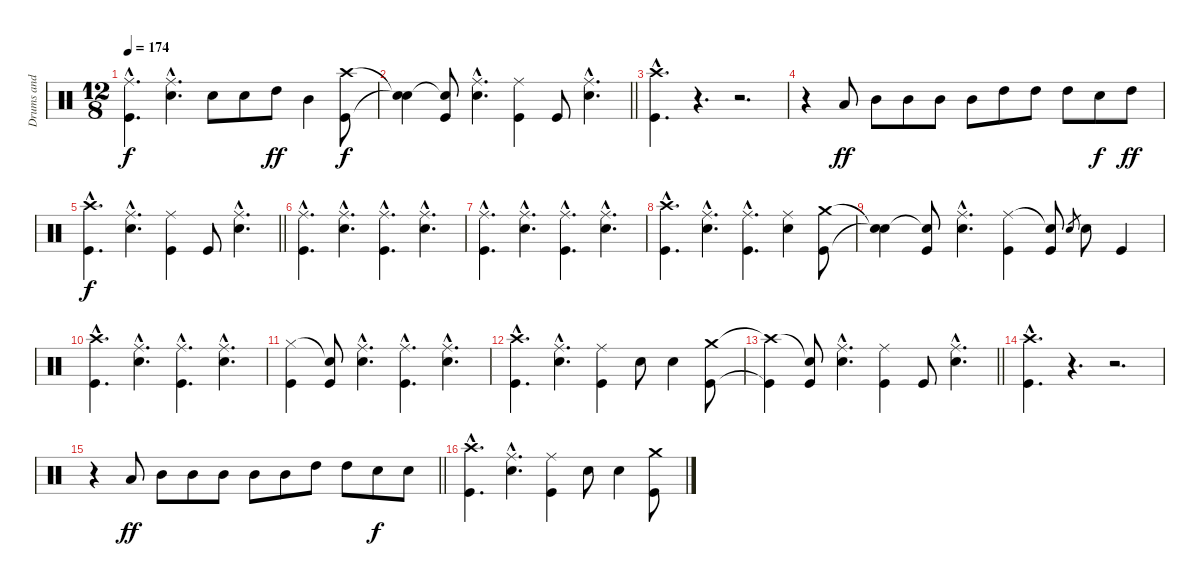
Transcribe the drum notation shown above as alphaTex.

\track ("Drums and percussion" "Drums and ") {instrument percussion}
\staff {score}
\articulation defaults
\ts (12 8)
\tempo 174
\clef neutral
\ks c
("Ride (middle)"{hac} "Kick (hit)"{hac}).4{d dy f} ("Ride (middle)"{hac} "Snare (hit) 2"{hac}).4{d} "Snare (hit) 2".8 "Snare (hit) 2".8 "High Tom (hit)".8{dy ff} "Mid Tom (hit)".4 ("Crash high (hit)" "Kick (hit)").8{dy f} |
\barLineRight lightlight
("Snare (hit)"{t} "Snare (hit)"{t}).4 ("Snare (hit)"{t} "Kick (hit)").8 ("Ride (middle)"{hac} "Snare (hit) 2"{hac}).4{d} ("Ride (middle)" "Kick (hit)").4 "Kick (hit)".8 ("Ride (middle)"{hac} "Snare (hit) 2"{hac}).4{d} |
("Crash high (hit)"{hac} "Kick (hit)"{hac}).4{d} r.4{d} r.2{d} |
r.4 "Low Tom (hit)".8{dy ff} "Mid Tom (hit)".8 "Mid Tom (hit)".8 "Mid Tom (hit)".8 "Mid Tom (hit)".8 "High Tom (hit)".8 "High Tom (hit)".8 "High Tom (hit)".8 "Snare (hit) 2".8{dy f} "High Tom (hit)".8{dy ff} |
\barLineRight lightlight
("Crash high (hit)"{hac} "Kick (hit)"{hac}).4{d dy f} ("Ride (middle)"{hac} "Snare (hit) 2"{hac}).4{d} ("Ride (middle)" "Kick (hit)").4 "Kick (hit)".8 ("Ride (middle)"{hac} "Snare (hit) 2"{hac}).4{d} |
("Ride (middle)"{hac} "Kick (hit)"{hac}).4{d} ("Ride (middle)"{hac} "Snare (hit) 2"{hac}).4{d} ("Ride (middle)"{hac} "Kick (hit)"{hac}).4{d} ("Ride (middle)"{hac} "Snare (hit) 2"{hac}).4{d} |
("Ride (middle)"{hac} "Kick (hit)"{hac}).4{d} ("Ride (middle)"{hac} "Snare (hit) 2"{hac}).4{d} ("Ride (middle)"{hac} "Kick (hit)"{hac}).4{d} ("Ride (middle)"{hac} "Snare (hit) 2"{hac}).4{d} |
("Crash high (hit)"{hac} "Kick (hit)"{hac}).4{d} ("Ride (middle)"{hac} "Snare (hit) 2"{hac}).4{d} ("Ride (middle)"{hac} "Kick (hit)"{hac}).4{d} ("Ride (middle)" "Snare (hit) 2").4 ("Crash medium (hit)" "Kick (hit)").8 |
("Snare (hit)"{t} "Snare (hit)"{t}).4 ("Snare (hit)"{t} "Kick (hit)").8 ("Ride (middle)"{hac} "Snare (hit) 2"{hac}).4{d} ("Ride (middle)" "Kick (hit)").4 ("Snare (hit)"{t} "Kick (hit)").8 "Snare (hit) 2".8{gr} "Snare (hit) 2".8 "Kick (hit)".4 |
("Crash high (hit)"{hac} "Kick (hit)"{hac}).4{d} ("Ride (middle)"{hac} "Snare (hit) 2"{hac}).4{d} ("Ride (middle)"{hac} "Kick (hit)"{hac}).4{d} ("Ride (middle)"{hac} "Snare (hit) 2"{hac}).4{d} |
("Hi-Hat (closed)" "Kick (hit)").4 ("Snare (hit)"{t} "Kick (hit)").8 ("Ride (middle)"{hac} "Snare (hit) 2"{hac}).4{d} ("Ride (middle)"{hac} "Kick (hit)"{hac}).4{d} ("Ride (middle)"{hac} "Snare (hit) 2"{hac}).4{d} |
("Crash high (hit)"{hac} "Kick (hit)"{hac}).4{d} ("Ride (middle)"{hac} "Snare (hit) 2"{hac}).4{d} ("Ride (middle)" "Kick (hit)").4 "Snare (hit) 2".8 "Snare (hit) 2".4 ("Crash medium (hit)" "Kick (hit)").8 |
\barLineRight lightlight
("Crash high (hit)"{t} "Kick (hit)"{t}).4 ("Snare (hit)"{t} "Kick (hit)").8 ("Ride (middle)"{hac} "Snare (hit) 2"{hac}).4{d} ("Ride (middle)" "Kick (hit)").4 "Kick (hit)".8 ("Ride (middle)"{hac} "Snare (hit) 2"{hac}).4{d} |
("Crash high (hit)"{hac} "Kick (hit)"{hac}).4{d} r.4{d} r.2{d} |
\barLineRight lightlight
r.4 "Low Tom (hit)".8{dy ff} "Mid Tom (hit)".8 "Mid Tom (hit)".8 "Mid Tom (hit)".8 "Mid Tom (hit)".8 "Mid Tom (hit)".8 "High Tom (hit)".8 "High Tom (hit)".8 "Snare (hit) 2".8{dy f} "Snare (hit) 2".8 |
("Crash high (hit)"{hac} "Kick (hit)"{hac}).4{d} ("Ride (middle)"{hac} "Snare (hit) 2"{hac}).4{d} ("Ride (middle)" "Kick (hit)").4 "Snare (hit) 2".8 "Snare (hit) 2".4 ("Crash medium (hit)" "Kick (hit)").8
